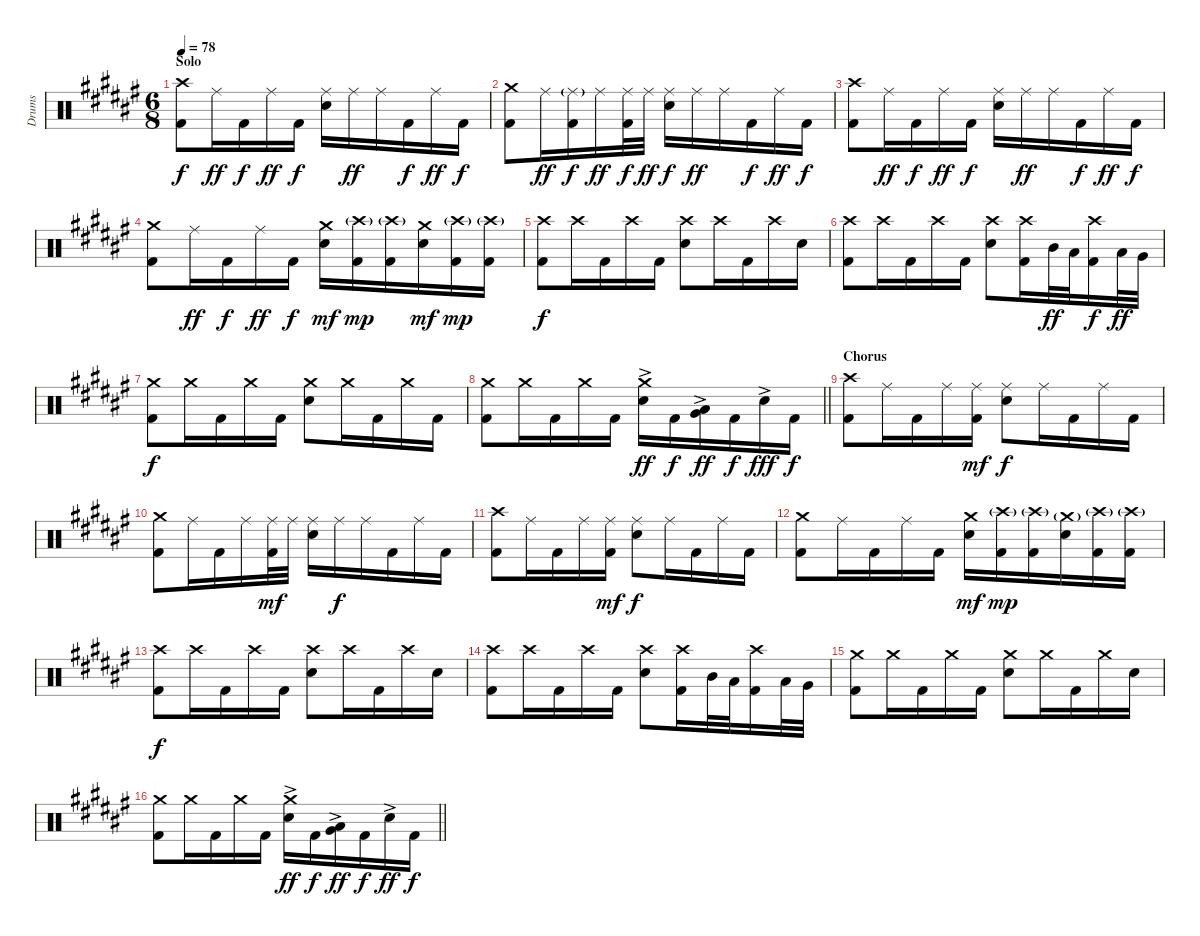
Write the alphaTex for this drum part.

\track ("Drums" "Drums") {instrument percussion}
\staff {score}
\articulation defaults
\ts (6 8)
\section ("" "Solo")
\tempo 78
\clef neutral
\ks d#minor
("Crash high (hit)" "Kick (hit) 2").8{dy f} "Ride (middle)".16{dy ff} "Kick (hit) 2".16{dy f} "Ride (middle)".16{dy ff} "Kick (hit) 2".16{dy f} ("Ride (middle)" "Electric Snare (hit)").16 "Ride (middle)".16{dy ff} "Ride (middle)".16 "Kick (hit) 2".16{dy f} "Ride (middle)".16{dy ff} "Kick (hit) 2".16{dy f} |
("Crash medium (hit)" "Kick (hit) 2").8 "Ride (middle)".16{dy ff} ("Ride (middle)"{g} "Kick (hit) 2").16{dy f} "Ride (middle)".16{dy ff} ("Ride (middle)" "Kick (hit) 2").32{dy f} "Ride (middle)".32{dy ff} ("Ride (middle)" "Electric Snare (hit)").16{dy f} "Ride (middle)".16{dy ff} "Ride (middle)".16 "Kick (hit) 2".16{dy f} "Ride (middle)".16{dy ff} "Kick (hit) 2".16{dy f} |
("Crash high (hit)" "Kick (hit) 2").8 "Ride (middle)".16{dy ff} "Kick (hit) 2".16{dy f} "Ride (middle)".16{dy ff} "Kick (hit) 2".16{dy f} ("Ride (middle)" "Electric Snare (hit)").16 "Ride (middle)".16{dy ff} "Ride (middle)".16 "Kick (hit) 2".16{dy f} "Ride (middle)".16{dy ff} "Kick (hit) 2".16{dy f} |
("Crash medium (hit)" "Kick (hit) 2").8 "Ride (middle)".16{dy ff} "Kick (hit) 2".16{dy f} "Ride (middle)".16{dy ff} "Kick (hit) 2".16{dy f} ("Crash medium (hit)" "Electric Snare (hit)").16{dy mf} ("Crash high (hit)"{g} "Kick (hit) 2").16{dy mp} ("Crash high (hit)"{g} "Kick (hit) 2").16 ("Crash medium (hit)" "Electric Snare (hit)").16{dy mf} ("Crash high (hit)"{g} "Kick (hit) 2").16{dy mp} ("Crash high (hit)"{g} "Kick (hit) 2").16 |
("Crash high (hit)" "Kick (hit) 2").8{dy f} "Crash high (hit)".16 "Kick (hit) 2".16 "Crash high (hit)".16 "Kick (hit) 2".16 ("Crash high (hit)" "Electric Snare (hit)").8 "Crash high (hit)".16 "Kick (hit) 2".16 "Crash high (hit)".16 "Electric Snare (hit)".16 |
("Crash high (hit)" "Kick (hit) 2").8 "Crash high (hit)".16 "Kick (hit) 2".16 "Crash high (hit)".16 "Kick (hit) 2".16 ("Crash high (hit)" "Electric Snare (hit)").8 ("Crash high (hit)" "Kick (hit) 2").16 "Mid Tom (hit)".32{dy ff} "Low Tom (hit)".32 ("Crash high (hit)" "Kick (hit) 2").16{dy f} "Low Tom (hit)".32{dy ff} "Very Low Tom (hit)".32 |
("Crash medium (hit)" "Kick (hit) 2").8{dy f} "Crash medium (hit)".16 "Kick (hit) 2".16 "Crash medium (hit)".16 "Kick (hit) 2".16 ("Crash medium (hit)" "Electric Snare (hit)").8 "Crash medium (hit)".16 "Kick (hit) 2".16 "Crash medium (hit)".16 "Kick (hit) 2".16 |
\barLineRight lightlight
("Crash medium (hit)" "Kick (hit) 2").8 "Crash medium (hit)".16 "Kick (hit) 2".16 "Crash medium (hit)".16 "Kick (hit) 2".16 ("Crash medium (hit)" "Electric Snare (hit)"{ac}).16{dy ff} "Kick (hit) 2".16{dy f} ("Low Tom (hit)" "Very Low Tom (hit)"{ac}).16{dy ff} "Kick (hit) 2".16{dy f} "Electric Snare (hit)"{ac}.16{dy fff} "Kick (hit) 2".16{dy f} |
\section ("" "Chorus")
("Crash high (hit)" "Kick (hit) 2").8 "Ride (middle)".16 "Kick (hit) 2".16 "Ride (middle)".16 ("Ride (middle)" "Kick (hit) 2").16{dy mf} ("Ride (middle)" "Electric Snare (hit)").8{dy f} "Ride (middle)".16 "Kick (hit) 2".16 "Ride (middle)".16 "Kick (hit) 2".16 |
("Crash medium (hit)" "Kick (hit) 2").8 "Ride (middle)".16 "Kick (hit) 2".16 "Ride (middle)".16 ("Ride (middle)" "Kick (hit) 2").32{dy mf} "Ride (middle)".32 ("Ride (middle)" "Electric Snare (hit)").16 "Ride (middle)".16{dy f} "Ride (middle)".16 "Kick (hit) 2".16 "Ride (middle)".16 "Kick (hit) 2".16 |
("Crash high (hit)" "Kick (hit) 2").8 "Ride (middle)".16 "Kick (hit) 2".16 "Ride (middle)".16 ("Ride (middle)" "Kick (hit) 2").16{dy mf} ("Ride (middle)" "Electric Snare (hit)").8{dy f} "Ride (middle)".16 "Kick (hit) 2".16 "Ride (middle)".16 "Kick (hit) 2".16 |
("Crash medium (hit)" "Kick (hit) 2").8 "Ride (middle)".16 "Kick (hit) 2".16 "Ride (middle)".16 "Kick (hit) 2".16 ("Crash medium (hit)" "Electric Snare (hit)").16{dy mf} ("Crash high (hit)"{g} "Kick (hit) 2").16{dy mp} ("Crash high (hit)"{g} "Kick (hit) 2").16 ("Crash medium (hit)"{g} "Electric Snare (hit)").16 ("Crash high (hit)"{g} "Kick (hit) 2").16 ("Crash high (hit)"{g} "Kick (hit) 2").16 |
("Crash high (hit)" "Kick (hit) 2").8{dy f} "Crash high (hit)".16 "Kick (hit) 2".16 "Crash high (hit)".16 "Kick (hit) 2".16 ("Crash high (hit)" "Electric Snare (hit)").8 "Crash high (hit)".16 "Kick (hit) 2".16 "Crash high (hit)".16 "Electric Snare (hit)".16 |
("Crash high (hit)" "Kick (hit) 2").8 "Crash high (hit)".16 "Kick (hit) 2".16 "Crash high (hit)".16 "Kick (hit) 2".16 ("Crash high (hit)" "Electric Snare (hit)").8 ("Crash high (hit)" "Kick (hit) 2").16 "Mid Tom (hit)".32 "Low Tom (hit)".32 ("Crash high (hit)" "Kick (hit) 2").16 "Low Tom (hit)".32 "Very Low Tom (hit)".32 |
("Crash medium (hit)" "Kick (hit) 2").8 "Crash medium (hit)".16 "Kick (hit) 2".16 "Crash medium (hit)".16 "Kick (hit) 2".16 ("Crash medium (hit)" "Electric Snare (hit)").8 "Crash medium (hit)".16 "Kick (hit) 2".16 "Crash medium (hit)".16 "Electric Snare (hit)".16 |
\barLineRight lightlight
("Crash medium (hit)" "Kick (hit) 2").8 "Crash medium (hit)".16 "Kick (hit) 2".16 "Crash medium (hit)".16 "Kick (hit) 2".16 ("Crash medium (hit)" "Electric Snare (hit)"{ac}).16{dy ff} "Kick (hit) 2".16{dy f} ("Low Tom (hit)" "Very Low Tom (hit)"{ac}).16{dy ff} "Kick (hit) 2".16{dy f} "Electric Snare (hit)"{ac}.16{dy ff} "Kick (hit) 2".16{dy f}
